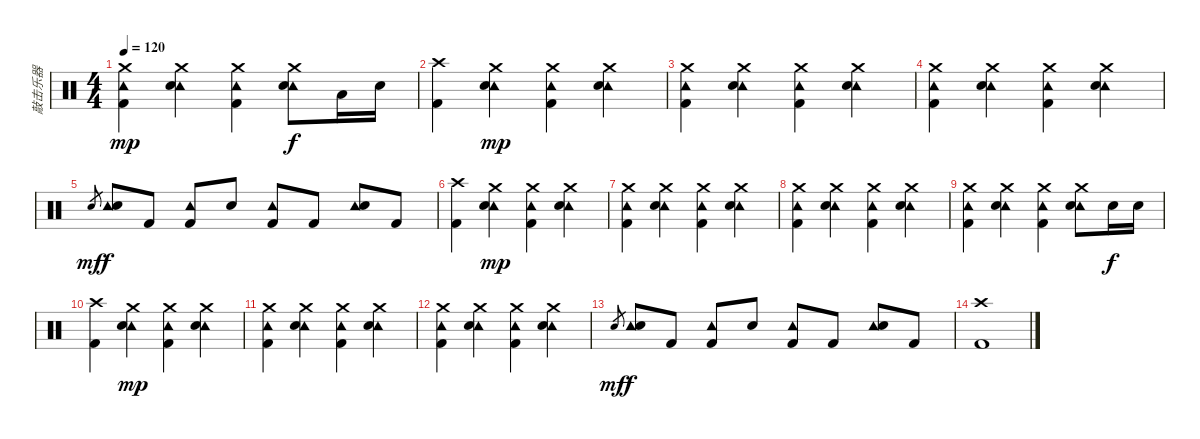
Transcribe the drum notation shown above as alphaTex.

\track ("敲击乐器" "敲击乐器") {instrument percussion}
\staff {score}
\articulation defaults
\ts (4 4)
\tempo 120
\clef neutral
\ks c
("Crash medium (hit)" "Tambourine (hit)" "Kick (hit) 2").4{dy mp} ("Crash medium (hit)" "Tambourine (hit)" "Electric Snare (hit)").4 ("Crash medium (hit)" "Tambourine (hit)" "Kick (hit) 2").4 ("Crash medium (hit)" "Tambourine (hit)" "Electric Snare (hit)").8{dy f} "Low Tom (hit)".16 "Electric Snare (hit)".16 |
("Crash high (hit)" "Kick (hit) 2").4 ("Crash medium (hit)" "Tambourine (hit)" "Electric Snare (hit)").4{dy mp} ("Crash medium (hit)" "Tambourine (hit)" "Kick (hit) 2").4 ("Crash medium (hit)" "Tambourine (hit)" "Electric Snare (hit)").4 |
("Crash medium (hit)" "Tambourine (hit)" "Kick (hit) 2").4 ("Crash medium (hit)" "Tambourine (hit)" "Electric Snare (hit)").4 ("Crash medium (hit)" "Tambourine (hit)" "Kick (hit) 2").4 ("Crash medium (hit)" "Tambourine (hit)" "Electric Snare (hit)").4 |
("Crash medium (hit)" "Tambourine (hit)" "Kick (hit) 2").4 ("Crash medium (hit)" "Tambourine (hit)" "Electric Snare (hit)").4 ("Crash medium (hit)" "Tambourine (hit)" "Kick (hit) 2").4 ("Crash medium (hit)" "Tambourine (hit)" "Electric Snare (hit)").4 |
"Electric Snare (hit)".8{gr dy mf} ("Tambourine (hit)" "Electric Snare (hit)").8{dy f} "Kick (hit) 2".8 ("Tambourine (hit)" "Kick (hit) 2").8 "Electric Snare (hit)".8 ("Tambourine (hit)" "Kick (hit) 2").8 "Kick (hit) 2".8 ("Tambourine (hit)" "Electric Snare (hit)").8 "Kick (hit) 2".8 |
("Crash high (hit)" "Kick (hit) 2").4 ("Tambourine (hit)" "Crash medium (hit)" "Electric Snare (hit)").4{dy mp} ("Tambourine (hit)" "Crash medium (hit)" "Kick (hit) 2").4 ("Tambourine (hit)" "Crash medium (hit)" "Electric Snare (hit)").4 |
("Tambourine (hit)" "Crash medium (hit)" "Kick (hit) 2").4 ("Tambourine (hit)" "Crash medium (hit)" "Electric Snare (hit)").4 ("Tambourine (hit)" "Crash medium (hit)" "Kick (hit) 2").4 ("Tambourine (hit)" "Crash medium (hit)" "Electric Snare (hit)").4 |
("Tambourine (hit)" "Crash medium (hit)" "Kick (hit) 2").4 ("Tambourine (hit)" "Crash medium (hit)" "Electric Snare (hit)").4 ("Tambourine (hit)" "Crash medium (hit)" "Kick (hit) 2").4 ("Tambourine (hit)" "Crash medium (hit)" "Electric Snare (hit)").4 |
("Tambourine (hit)" "Crash medium (hit)" "Kick (hit) 2").4 ("Tambourine (hit)" "Crash medium (hit)" "Electric Snare (hit)").4 ("Tambourine (hit)" "Crash medium (hit)" "Kick (hit) 2").4 ("Tambourine (hit)" "Crash medium (hit)" "Electric Snare (hit)").8 "Electric Snare (hit)".16{dy f} "Electric Snare (hit)".16 |
("Crash high (hit)" "Kick (hit) 2").4 ("Crash medium (hit)" "Tambourine (hit)" "Electric Snare (hit)").4{dy mp} ("Crash medium (hit)" "Tambourine (hit)" "Kick (hit) 2").4 ("Crash medium (hit)" "Tambourine (hit)" "Electric Snare (hit)").4 |
("Crash medium (hit)" "Tambourine (hit)" "Kick (hit) 2").4 ("Crash medium (hit)" "Tambourine (hit)" "Electric Snare (hit)").4 ("Crash medium (hit)" "Tambourine (hit)" "Kick (hit) 2").4 ("Crash medium (hit)" "Tambourine (hit)" "Electric Snare (hit)").4 |
("Crash medium (hit)" "Tambourine (hit)" "Kick (hit) 2").4 ("Crash medium (hit)" "Tambourine (hit)" "Electric Snare (hit)").4 ("Crash medium (hit)" "Tambourine (hit)" "Kick (hit) 2").4 ("Crash medium (hit)" "Tambourine (hit)" "Electric Snare (hit)").4 |
"Electric Snare (hit)".8{gr dy mf} ("Tambourine (hit)" "Electric Snare (hit)").8{dy f} "Kick (hit) 2".8 ("Tambourine (hit)" "Kick (hit) 2").8 "Electric Snare (hit)".8 ("Tambourine (hit)" "Kick (hit) 2").8 "Kick (hit) 2".8 ("Tambourine (hit)" "Electric Snare (hit)").8 "Kick (hit) 2".8 |
("Crash high (hit)" "Kick (hit) 2").1
